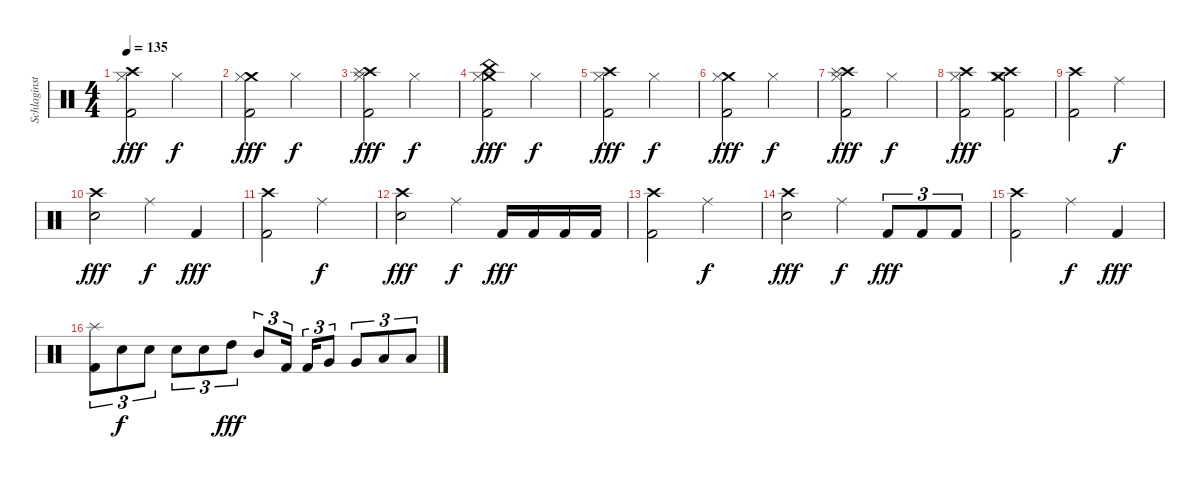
\track ("Schlaginstrumente - Auswahl" "Schlaginst") {instrument percussion}
\staff {score}
\articulation defaults
\ts (4 4)
\tempo 135
\clef neutral
\ks c
("Crash high (hit)" "Hi-Hat (closed)" "Kick (hit) 2").2{dy fff} "Hi-Hat (closed)".2{dy f} |
("Crash medium (hit)" "Hi-Hat (closed)" "Kick (hit) 2").2{dy fff} "Hi-Hat (closed)".2{dy f} |
("Crash high (hit)" "Splash (hit)" "Hi-Hat (closed)" "Kick (hit) 2").2{dy fff} "Hi-Hat (closed)".2{dy f} |
("Crash medium (hit)" "China (hit)" "Hi-Hat (closed)" "Kick (hit) 2").2{dy fff} "Hi-Hat (closed)".2{dy f} |
("Crash high (hit)" "Hi-Hat (closed)" "Kick (hit) 2").2{dy fff} "Hi-Hat (closed)".2{dy f} |
("Crash medium (hit)" "Hi-Hat (closed)" "Kick (hit) 2").2{dy fff} "Hi-Hat (closed)".2{dy f} |
("Crash high (hit)" "Splash (hit)" "Hi-Hat (closed)" "Kick (hit) 2").2{dy fff} "Hi-Hat (closed)".2{dy f} |
("Crash high (hit)" "Hi-Hat (closed)" "Kick (hit) 2").2{dy fff} ("Crash high (hit)" "Crash medium (hit)" "Hi-Hat (closed)" "Kick (hit) 2").2 |
("Crash high (hit)" "Kick (hit) 2").2 "Ride (middle)".2{dy f} |
("Crash high (hit)" "Snare (hit) 2").2{dy fff} "Ride (middle)".4{dy f} "Kick (hit) 2".4{dy fff} |
("Crash high (hit)" "Kick (hit) 2").2 "Ride (middle)".2{dy f} |
("Crash high (hit)" "Snare (hit) 2").2{dy fff} "Ride (middle)".4{dy f} "Kick (hit) 2".16{dy fff} "Kick (hit) 2".16 "Kick (hit) 2".16 "Kick (hit) 2".16 |
("Crash high (hit)" "Kick (hit) 2").2 "Ride (middle)".2{dy f} |
("Crash high (hit)" "Snare (hit) 2").2{dy fff} "Ride (middle)".4{dy f} "Kick (hit) 2".8{tu (3 2) dy fff} "Kick (hit) 2".8{tu (3 2)} "Kick (hit) 2".8{tu (3 2)} |
("Crash high (hit)" "Kick (hit) 2").2 "Ride (middle)".4{dy f} "Kick (hit) 2".4{dy fff} |
("Splash (hit)" "Kick (hit) 2").8{tu (3 2)} "Snare (hit) 2".8{tu (3 2) dy f} "Snare (hit) 2".8{tu (3 2)} "Snare (hit) 2".8{tu (3 2)} "Snare (hit) 2".8{tu (3 2)} "High Tom (hit)".8{tu (3 2) dy fff} "Mid Tom (hit)".8{tu (3 2)} "Kick (hit) 2".16{tu (3 2) beam splitsecondary} "Kick (hit) 2".16{tu (3 2)} "Very Low Tom (hit)".8{tu (3 2)} "Very Low Tom (hit)".8{tu (3 2)} "Low Floor Tom (hit)".8{tu (3 2)} "Low Floor Tom (hit)".8{tu (3 2)}
